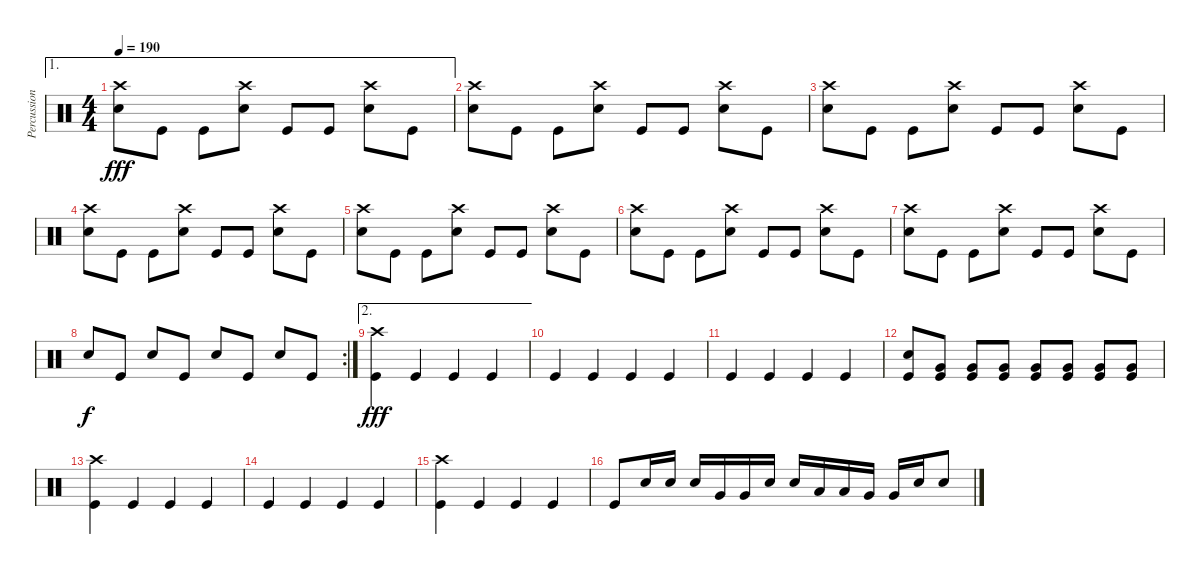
\track ("Percussions" "Percussion") {instrument percussion}
\staff {score}
\articulation defaults
\ae 1
\ts (4 4)
\tempo 190
\clef neutral
\ks c
("Crash high (hit)" "Electric Snare (hit)").8{dy fff} "Kick (hit)".8 "Kick (hit)".8 ("Crash high (hit)" "Electric Snare (hit)").8 "Kick (hit)".8 "Kick (hit)".8 ("Crash high (hit)" "Electric Snare (hit)").8 "Kick (hit)".8 |
("Crash high (hit)" "Electric Snare (hit)").8 "Kick (hit)".8 "Kick (hit)".8 ("Crash high (hit)" "Electric Snare (hit)").8 "Kick (hit)".8 "Kick (hit)".8 ("Crash high (hit)" "Electric Snare (hit)").8 "Kick (hit)".8 |
("Crash high (hit)" "Electric Snare (hit)").8 "Kick (hit)".8 "Kick (hit)".8 ("Crash high (hit)" "Electric Snare (hit)").8 "Kick (hit)".8 "Kick (hit)".8 ("Crash high (hit)" "Electric Snare (hit)").8 "Kick (hit)".8 |
("Crash high (hit)" "Electric Snare (hit)").8 "Kick (hit)".8 "Kick (hit)".8 ("Crash high (hit)" "Electric Snare (hit)").8 "Kick (hit)".8 "Kick (hit)".8 ("Crash high (hit)" "Electric Snare (hit)").8 "Kick (hit)".8 |
("Crash high (hit)" "Electric Snare (hit)").8 "Kick (hit)".8 "Kick (hit)".8 ("Crash high (hit)" "Electric Snare (hit)").8 "Kick (hit)".8 "Kick (hit)".8 ("Crash high (hit)" "Electric Snare (hit)").8 "Kick (hit)".8 |
("Crash high (hit)" "Electric Snare (hit)").8 "Kick (hit)".8 "Kick (hit)".8 ("Crash high (hit)" "Electric Snare (hit)").8 "Kick (hit)".8 "Kick (hit)".8 ("Crash high (hit)" "Electric Snare (hit)").8 "Kick (hit)".8 |
("Crash high (hit)" "Electric Snare (hit)").8 "Kick (hit)".8 "Kick (hit)".8 ("Crash high (hit)" "Electric Snare (hit)").8 "Kick (hit)".8 "Kick (hit)".8 ("Crash high (hit)" "Electric Snare (hit)").8 "Kick (hit)".8 |
\rc 2 "Electric Snare (hit)".8{dy f} "Kick (hit)".8 "Electric Snare (hit)".8 "Kick (hit)".8 "Electric Snare (hit)".8 "Kick (hit)".8 "Electric Snare (hit)".8 "Kick (hit)".8
|
\ae 2
("Crash high (hit)" "Kick (hit)").4{dy fff} "Kick (hit)".4 "Kick (hit)".4 "Kick (hit)".4 |
"Kick (hit)".4 "Kick (hit)".4 "Kick (hit)".4 "Kick (hit)".4 |
"Kick (hit)".4 "Kick (hit)".4 "Kick (hit)".4 "Kick (hit)".4 |
("Electric Snare (hit)" "Kick (hit)").8 ("Very Low Tom (hit)" "Kick (hit)").8 ("Very Low Tom (hit)" "Kick (hit)").8 ("Very Low Tom (hit)" "Kick (hit)").8 ("Very Low Tom (hit)" "Kick (hit)").8 ("Very Low Tom (hit)" "Kick (hit)").8 ("Very Low Tom (hit)" "Kick (hit)").8 ("Very Low Tom (hit)" "Kick (hit)").8 |
("Crash high (hit)" "Kick (hit)").4 "Kick (hit)".4 "Kick (hit)".4 "Kick (hit)".4 |
"Kick (hit)".4 "Kick (hit)".4 "Kick (hit)".4 "Kick (hit)".4 |
("Crash high (hit)" "Kick (hit)").4 "Kick (hit)".4 "Kick (hit)".4 "Kick (hit)".4 |
"Kick (hit)".8 "Electric Snare (hit)".16 "Electric Snare (hit)".16 "Electric Snare (hit)".16 "Very Low Tom (hit)".16 "Very Low Tom (hit)".16 "Electric Snare (hit)".16 "Electric Snare (hit)".16 "Low Tom (hit)".16 "Low Tom (hit)".16 "Very Low Tom (hit)".16 "Very Low Tom (hit)".16 "Electric Snare (hit)".16 "Electric Snare (hit)".8
